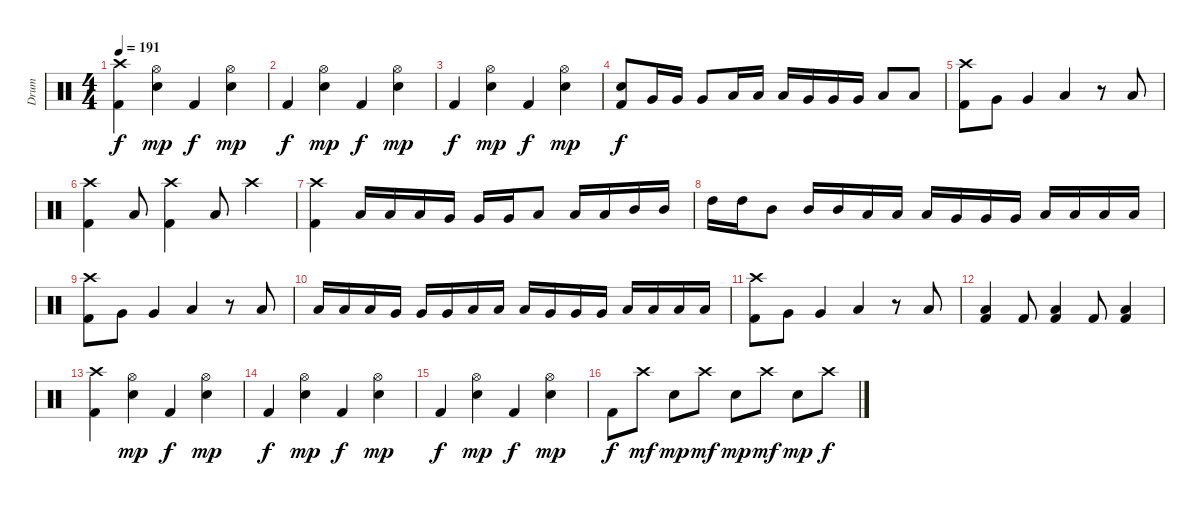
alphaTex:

\track ("Drum" "Drum") {instrument percussion}
\staff {score}
\articulation defaults
\ts (4 4)
\tempo 191
\clef neutral
\ks c
("Kick (hit) 2" "Crash high (hit)").4{dy f} ("Snare (hit) 2" "Hi-Hat (open)").4{dy mp} "Kick (hit) 2".4{dy f} ("Snare (hit) 2" "Hi-Hat (open)").4{dy mp} |
"Kick (hit) 2".4{dy f} ("Snare (hit) 2" "Hi-Hat (open)").4{dy mp} "Kick (hit) 2".4{dy f} ("Snare (hit) 2" "Hi-Hat (open)").4{dy mp} |
"Kick (hit) 2".4{dy f} ("Snare (hit) 2" "Hi-Hat (open)").4{dy mp} "Kick (hit) 2".4{dy f} ("Snare (hit) 2" "Hi-Hat (open)").4{dy mp} |
("Kick (hit) 2" "Snare (hit) 2").8{dy f} "Very Low Tom (hit)".16 "Very Low Tom (hit)".16 "Very Low Tom (hit)".8 "Low Tom (hit)".16 "Low Tom (hit)".16 "Low Tom (hit)".16 "Very Low Tom (hit)".16 "Very Low Tom (hit)".16 "Very Low Tom (hit)".16 "Low Floor Tom (hit)".8 "Low Floor Tom (hit)".8 |
("Kick (hit) 2" "Crash high (hit)").8 "Very Low Tom (hit)".8 "Very Low Tom (hit)".4 "Low Floor Tom (hit)".4 r.8 "Low Floor Tom (hit)".8 |
("Kick (hit) 2" "Crash high (hit)").4 "Low Floor Tom (hit)".8 ("Kick (hit) 2" "Crash high (hit)").4 "Low Floor Tom (hit)".8 "Crash high (hit)".4 |
("Kick (hit) 2" "Crash high (hit)").4 "Low Floor Tom (hit)".16 "Low Floor Tom (hit)".16 "Low Floor Tom (hit)".16 "Very Low Tom (hit)".16 "Very Low Tom (hit)".16 "Very Low Tom (hit)".16 "Low Tom (hit)".8 "Low Tom (hit)".16 "Low Tom (hit)".16 "Mid Tom (hit)".16 "Mid Tom (hit)".16 |
"High Tom (hit)".16 "High Tom (hit)".16 "Mid Tom (hit)".8 "Mid Tom (hit)".16 "Mid Tom (hit)".16 "Low Tom (hit)".16 "Low Tom (hit)".16 "Low Tom (hit)".16 "Very Low Tom (hit)".16 "Very Low Tom (hit)".16 "Very Low Tom (hit)".16 "Low Floor Tom (hit)".16 "Low Floor Tom (hit)".16 "Low Floor Tom (hit)".16 "Low Floor Tom (hit)".16 |
("Kick (hit) 2" "Crash high (hit)").8 "Very Low Tom (hit)".8 "Very Low Tom (hit)".4 "Low Floor Tom (hit)".4 r.8 "Low Floor Tom (hit)".8 |
"Low Floor Tom (hit)".16 "Low Floor Tom (hit)".16 "Low Floor Tom (hit)".16 "Very Low Tom (hit)".16 "Very Low Tom (hit)".16 "Very Low Tom (hit)".16 "Low Tom (hit)".16 "Low Tom (hit)".16 "Low Tom (hit)".16 "Very Low Tom (hit)".16 "Very Low Tom (hit)".16 "Very Low Tom (hit)".16 "Low Floor Tom (hit)".16 "Low Floor Tom (hit)".16 "Low Floor Tom (hit)".16 "Low Floor Tom (hit)".16 |
("Kick (hit) 2" "Crash high (hit)").8 "Very Low Tom (hit)".8 "Very Low Tom (hit)".4 "Low Floor Tom (hit)".4 r.8 "Low Floor Tom (hit)".8 |
("Kick (hit) 2" "Low Floor Tom (hit)").4 "Kick (hit) 2".8 ("Kick (hit) 2" "Low Floor Tom (hit)").4 "Kick (hit) 2".8 ("Kick (hit) 2" "Low Floor Tom (hit)").4 |
("Kick (hit) 2" "Crash high (hit)").4 ("Snare (hit) 2" "Hi-Hat (open)").4{dy mp} "Kick (hit) 2".4{dy f} ("Snare (hit) 2" "Hi-Hat (open)").4{dy mp} |
"Kick (hit) 2".4{dy f} ("Snare (hit) 2" "Hi-Hat (open)").4{dy mp} "Kick (hit) 2".4{dy f} ("Snare (hit) 2" "Hi-Hat (open)").4{dy mp} |
"Kick (hit) 2".4{dy f} ("Snare (hit) 2" "Hi-Hat (open)").4{dy mp} "Kick (hit) 2".4{dy f} ("Snare (hit) 2" "Hi-Hat (open)").4{dy mp} |
"Kick (hit) 2".8{dy f} "Crash high (hit)".8{dy mf} "Snare (hit) 2".8{dy mp} "Crash high (hit)".8{dy mf} "Snare (hit) 2".8{dy mp} "Crash high (hit)".8{dy mf} "Snare (hit) 2".8{dy mp} "Crash high (hit)".8{dy f}
